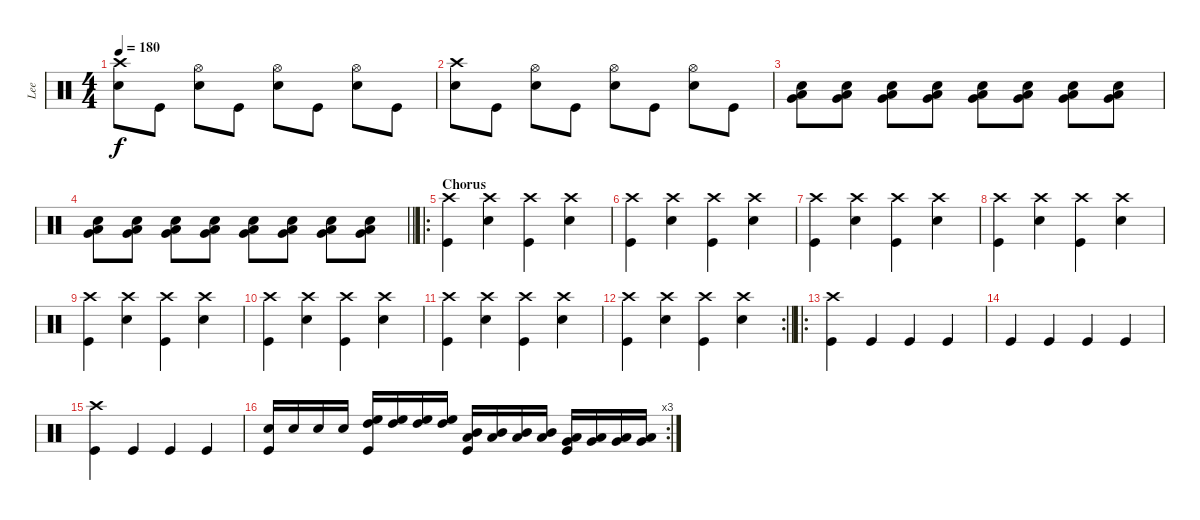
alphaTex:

\track ("Lee" "Lee") {instrument percussion}
\staff {score}
\articulation defaults
\ts (4 4)
\tempo 180
\clef neutral
\ks c
("Snare (hit) 2" "Crash high (hit)").8{dy f} "Kick (hit)".8 ("Snare (hit) 2" "Hi-Hat (open)").8 "Kick (hit)".8 ("Snare (hit) 2" "Hi-Hat (open)").8 "Kick (hit)".8 ("Snare (hit) 2" "Hi-Hat (open)").8 "Kick (hit)".8 |
("Snare (hit) 2" "Crash high (hit)").8 "Kick (hit)".8 ("Snare (hit) 2" "Hi-Hat (open)").8 "Kick (hit)".8 ("Snare (hit) 2" "Hi-Hat (open)").8 "Kick (hit)".8 ("Snare (hit) 2" "Hi-Hat (open)").8 "Kick (hit)".8 |
("Very Low Tom (hit)" "Low Floor Tom (hit)" "Snare (hit) 2").8 ("Very Low Tom (hit)" "Low Floor Tom (hit)" "Snare (hit) 2").8 ("Very Low Tom (hit)" "Low Floor Tom (hit)" "Snare (hit) 2").8 ("Very Low Tom (hit)" "Low Floor Tom (hit)" "Snare (hit) 2").8 ("Very Low Tom (hit)" "Low Floor Tom (hit)" "Snare (hit) 2").8 ("Very Low Tom (hit)" "Low Floor Tom (hit)" "Snare (hit) 2").8 ("Very Low Tom (hit)" "Low Floor Tom (hit)" "Snare (hit) 2").8 ("Very Low Tom (hit)" "Low Floor Tom (hit)" "Snare (hit) 2").8 |
\barLineRight lightlight
("Very Low Tom (hit)" "Low Floor Tom (hit)" "Snare (hit) 2").8 ("Very Low Tom (hit)" "Low Floor Tom (hit)" "Snare (hit) 2").8 ("Very Low Tom (hit)" "Low Floor Tom (hit)" "Snare (hit) 2").8 ("Very Low Tom (hit)" "Low Floor Tom (hit)" "Snare (hit) 2").8 ("Very Low Tom (hit)" "Low Floor Tom (hit)" "Snare (hit) 2").8 ("Very Low Tom (hit)" "Low Floor Tom (hit)" "Snare (hit) 2").8 ("Very Low Tom (hit)" "Low Floor Tom (hit)" "Snare (hit) 2").8 ("Very Low Tom (hit)" "Low Floor Tom (hit)" "Snare (hit) 2").8 |
\ro
\section ("" "Chorus")
("Kick (hit)" "Crash high (hit)").4 ("Snare (hit) 2" "Crash high (hit)").4 ("Kick (hit)" "Crash high (hit)").4 ("Snare (hit) 2" "Crash high (hit)").4 |
("Kick (hit)" "Crash high (hit)").4 ("Snare (hit) 2" "Crash high (hit)").4 ("Kick (hit)" "Crash high (hit)").4 ("Snare (hit) 2" "Crash high (hit)").4 |
("Kick (hit)" "Crash high (hit)").4 ("Snare (hit) 2" "Crash high (hit)").4 ("Kick (hit)" "Crash high (hit)").4 ("Snare (hit) 2" "Crash high (hit)").4 |
("Kick (hit)" "Crash high (hit)").4 ("Snare (hit) 2" "Crash high (hit)").4 ("Kick (hit)" "Crash high (hit)").4 ("Snare (hit) 2" "Crash high (hit)").4 |
("Kick (hit)" "Crash high (hit)").4 ("Snare (hit) 2" "Crash high (hit)").4 ("Kick (hit)" "Crash high (hit)").4 ("Snare (hit) 2" "Crash high (hit)").4 |
("Kick (hit)" "Crash high (hit)").4 ("Snare (hit) 2" "Crash high (hit)").4 ("Kick (hit)" "Crash high (hit)").4 ("Snare (hit) 2" "Crash high (hit)").4 |
("Kick (hit)" "Crash high (hit)").4 ("Snare (hit) 2" "Crash high (hit)").4 ("Kick (hit)" "Crash high (hit)").4 ("Snare (hit) 2" "Crash high (hit)").4 |
\rc 2
\barLineRight lightlight
("Kick (hit)" "Crash high (hit)").4 ("Snare (hit) 2" "Crash high (hit)").4 ("Kick (hit)" "Crash high (hit)").4 ("Snare (hit) 2" "Crash high (hit)").4 |
\ro
("Kick (hit)" "Crash high (hit)").4 "Kick (hit)".4 "Kick (hit)".4 "Kick (hit)".4 |
"Kick (hit)".4 "Kick (hit)".4 "Kick (hit)".4 "Kick (hit)".4 |
("Kick (hit)" "Crash high (hit)").4 "Kick (hit)".4 "Kick (hit)".4 "Kick (hit)".4 |
\rc 3
("Snare (hit) 2" "Kick (hit)").16 "Snare (hit) 2".16 "Snare (hit) 2".16 "Snare (hit) 2".16 ("High Tom (hit)" "High Floor Tom (hit)" "Kick (hit)").16 ("High Tom (hit)" "High Floor Tom (hit)").16 ("High Tom (hit)" "High Floor Tom (hit)").16 ("High Tom (hit)" "High Floor Tom (hit)").16 ("Low Tom (hit)" "Mid Tom (hit)" "Kick (hit)").16 ("Low Tom (hit)" "Mid Tom (hit)").16 ("Low Tom (hit)" "Mid Tom (hit)").16 ("Low Tom (hit)" "Mid Tom (hit)").16 ("Very Low Tom (hit)" "Low Floor Tom (hit)" "Kick (hit)").16 ("Very Low Tom (hit)" "Low Floor Tom (hit)").16 ("Very Low Tom (hit)" "Low Floor Tom (hit)").16 ("Very Low Tom (hit)" "Low Floor Tom (hit)").16
